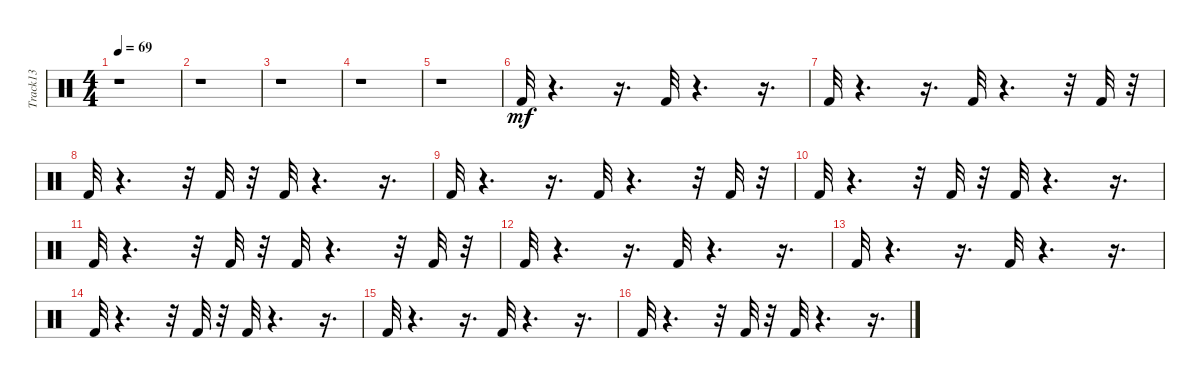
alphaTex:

\track ("Track13" "Track13") {instrument percussion}
\staff {score}
\articulation defaults
\ts (4 4)
\tempo 69
\clef neutral
\ks c
r.1{dy mf} |
r.1 |
r.1 |
r.1 |
r.1 |
"Kick (hit) 2".32 r.4{d} r.16{d} "Kick (hit) 2".32 r.4{d} r.16{d} |
"Kick (hit) 2".32 r.4{d} r.16{d} "Kick (hit) 2".32 r.4{d} r.32 "Kick (hit) 2".32 r.32 |
"Kick (hit) 2".32 r.4{d} r.32 "Kick (hit) 2".32 r.32 "Kick (hit) 2".32 r.4{d} r.16{d} |
"Kick (hit) 2".32 r.4{d} r.16{d} "Kick (hit) 2".32 r.4{d} r.32 "Kick (hit) 2".32 r.32 |
"Kick (hit) 2".32 r.4{d} r.32 "Kick (hit) 2".32 r.32 "Kick (hit) 2".32 r.4{d} r.16{d} |
"Kick (hit) 2".32 r.4{d} r.32 "Kick (hit) 2".32 r.32 "Kick (hit) 2".32 r.4{d} r.32 "Kick (hit) 2".32 r.32 |
"Kick (hit) 2".32 r.4{d} r.16{d} "Kick (hit) 2".32 r.4{d} r.16{d} |
"Kick (hit) 2".32 r.4{d} r.16{d} "Kick (hit) 2".32 r.4{d} r.16{d} |
"Kick (hit) 2".32 r.4{d} r.32 "Kick (hit) 2".32 r.32 "Kick (hit) 2".32 r.4{d} r.16{d} |
"Kick (hit) 2".32 r.4{d} r.16{d} "Kick (hit) 2".32 r.4{d} r.16{d} |
"Kick (hit) 2".32 r.4{d} r.32 "Kick (hit) 2".32 r.32 "Kick (hit) 2".32 r.4{d} r.16{d}
